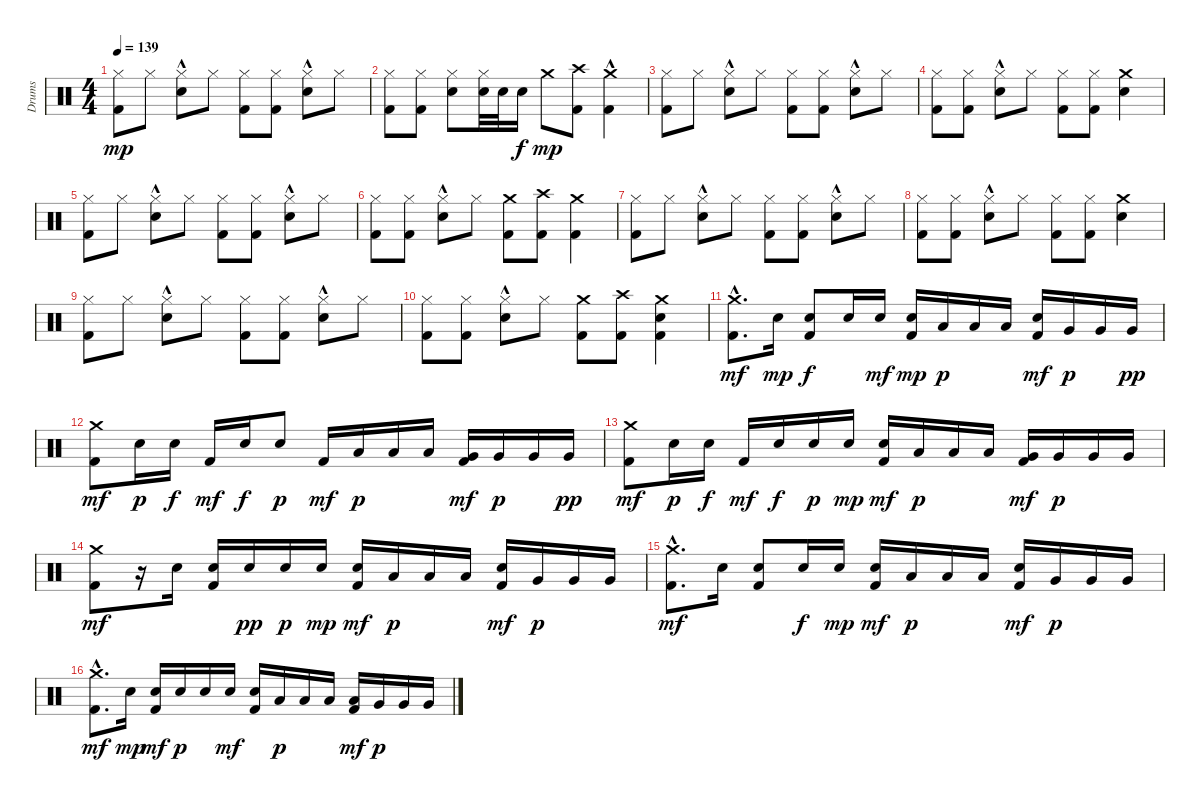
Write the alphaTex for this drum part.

\track ("Drums" "Drums") {instrument percussion}
\staff {score}
\articulation defaults
\ts (4 4)
\tempo 139
\clef neutral
\ks c
("Kick (hit) 2" "Hi-Hat (closed)").8{dy mp} "Hi-Hat (closed)".8 ("Hi-Hat (closed)" "Electric Snare (hit)"{hac}).8 "Hi-Hat (closed)".8 ("Kick (hit) 2" "Hi-Hat (closed)").8 ("Kick (hit) 2" "Hi-Hat (closed)").8 ("Hi-Hat (closed)" "Electric Snare (hit)"{hac}).8 "Hi-Hat (closed)".8 |
("Kick (hit) 2" "Hi-Hat (closed)").8 ("Kick (hit) 2" "Hi-Hat (closed)").8 ("Hi-Hat (closed)" "Electric Snare (hit)").8 ("Electric Snare (hit)" "Hi-Hat (closed)").32 "Electric Snare (hit)".32 "Electric Snare (hit)".16{dy f} "Crash medium (hit)".8{dy mp} ("Kick (hit) 2" "Crash high (hit)").8 ("Kick (hit) 2"{hac} "Crash medium (hit)").4 |
("Kick (hit) 2" "Hi-Hat (closed)").8 "Hi-Hat (closed)".8 ("Hi-Hat (closed)" "Electric Snare (hit)"{hac}).8 "Hi-Hat (closed)".8 ("Kick (hit) 2" "Hi-Hat (closed)").8 ("Kick (hit) 2" "Hi-Hat (closed)").8 ("Hi-Hat (closed)" "Electric Snare (hit)"{hac}).8 "Hi-Hat (closed)".8 |
("Kick (hit) 2" "Hi-Hat (closed)").8 ("Kick (hit) 2" "Hi-Hat (closed)").8 ("Hi-Hat (closed)" "Electric Snare (hit)"{hac}).8 "Hi-Hat (closed)".8 ("Kick (hit) 2" "Hi-Hat (closed)").8 ("Kick (hit) 2" "Hi-Hat (closed)").8 ("Crash medium (hit)" "Electric Snare (hit)").4 |
("Kick (hit) 2" "Hi-Hat (closed)").8 "Hi-Hat (closed)".8 ("Hi-Hat (closed)" "Electric Snare (hit)"{hac}).8 "Hi-Hat (closed)".8 ("Kick (hit) 2" "Hi-Hat (closed)").8 ("Kick (hit) 2" "Hi-Hat (closed)").8 ("Hi-Hat (closed)" "Electric Snare (hit)"{hac}).8 "Hi-Hat (closed)".8 |
("Kick (hit) 2" "Hi-Hat (closed)").8 ("Kick (hit) 2" "Hi-Hat (closed)").8 ("Hi-Hat (closed)" "Electric Snare (hit)"{hac}).8 "Hi-Hat (closed)".8 ("Kick (hit) 2" "Crash medium (hit)").8 ("Kick (hit) 2" "Crash high (hit)").8 ("Kick (hit) 2" "Crash medium (hit)").4 |
("Kick (hit) 2" "Hi-Hat (closed)").8 "Hi-Hat (closed)".8 ("Hi-Hat (closed)" "Electric Snare (hit)"{hac}).8 "Hi-Hat (closed)".8 ("Kick (hit) 2" "Hi-Hat (closed)").8 ("Kick (hit) 2" "Hi-Hat (closed)").8 ("Hi-Hat (closed)" "Electric Snare (hit)"{hac}).8 "Hi-Hat (closed)".8 |
("Kick (hit) 2" "Hi-Hat (closed)").8 ("Kick (hit) 2" "Hi-Hat (closed)").8 ("Hi-Hat (closed)" "Electric Snare (hit)"{hac}).8 "Hi-Hat (closed)".8 ("Kick (hit) 2" "Hi-Hat (closed)").8 ("Kick (hit) 2" "Hi-Hat (closed)").8 ("Crash medium (hit)" "Electric Snare (hit)").4 |
("Kick (hit) 2" "Hi-Hat (closed)").8 "Hi-Hat (closed)".8 ("Hi-Hat (closed)" "Electric Snare (hit)"{hac}).8 "Hi-Hat (closed)".8 ("Kick (hit) 2" "Hi-Hat (closed)").8 ("Kick (hit) 2" "Hi-Hat (closed)").8 ("Hi-Hat (closed)" "Electric Snare (hit)"{hac}).8 "Hi-Hat (closed)".8 |
("Kick (hit) 2" "Hi-Hat (closed)").8 ("Kick (hit) 2" "Hi-Hat (closed)").8 ("Hi-Hat (closed)" "Electric Snare (hit)"{hac}).8 "Hi-Hat (closed)".8 ("Kick (hit) 2" "Crash medium (hit)").8 ("Kick (hit) 2" "Crash high (hit)").8 ("Kick (hit) 2" "Crash medium (hit)" "Electric Snare (hit)").4 |
("Kick (hit) 2"{hac} "Crash medium (hit)"{hac}).8{d dy mf} "Electric Snare (hit)".16{dy mp} ("Electric Snare (hit)" "Kick (hit) 2").8{dy f} "Electric Snare (hit)".16 "Electric Snare (hit)".16{dy mf} ("Electric Snare (hit)" "Kick (hit) 2").16{dy mp} "Low Tom (hit)".16{dy p} "Low Tom (hit)".16 "Low Tom (hit)".16 ("Electric Snare (hit)" "Kick (hit) 2").16{dy mf} "Very Low Tom (hit)".16{dy p} "Very Low Tom (hit)".16 "Very Low Tom (hit)".16{dy pp} |
("Kick (hit) 2" "Crash medium (hit)").8{dy mf} "Electric Snare (hit)".16{dy p} "Electric Snare (hit)".16{dy f} "Kick (hit) 2".16{dy mf} "Electric Snare (hit)".16{dy f} "Electric Snare (hit)".8{dy p} "Kick (hit) 2".16{dy mf} "Low Tom (hit)".16{dy p} "Low Tom (hit)".16 "Low Tom (hit)".16 ("Very Low Tom (hit)" "Kick (hit) 2").16{dy mf} "Very Low Tom (hit)".16{dy p} "Very Low Tom (hit)".16 "Very Low Tom (hit)".16{dy pp} |
("Kick (hit) 2" "Crash medium (hit)").8{dy mf} "Electric Snare (hit)".16{dy p} "Electric Snare (hit)".16{dy f} "Kick (hit) 2".16{dy mf} "Electric Snare (hit)".16{dy f} "Electric Snare (hit)".16{dy p} "Electric Snare (hit)".16{dy mp} ("Electric Snare (hit)" "Kick (hit) 2").16{dy mf} "Low Tom (hit)".16{dy p} "Low Tom (hit)".16 "Low Tom (hit)".16 ("Very Low Tom (hit)" "Kick (hit) 2").16{dy mf} "Very Low Tom (hit)".16{dy p} "Very Low Tom (hit)".16 "Very Low Tom (hit)".16 |
("Kick (hit) 2" "Crash medium (hit)").8{dy mf} r.16 "Electric Snare (hit)".16 ("Electric Snare (hit)" "Kick (hit) 2").16 "Electric Snare (hit)".16{dy pp} "Electric Snare (hit)".16{dy p} "Electric Snare (hit)".16{dy mp} ("Electric Snare (hit)" "Kick (hit) 2").16{dy mf} "Low Tom (hit)".16{dy p} "Low Tom (hit)".16 "Low Tom (hit)".16 ("Electric Snare (hit)" "Kick (hit) 2").16{dy mf} "Very Low Tom (hit)".16{dy p} "Very Low Tom (hit)".16 "Very Low Tom (hit)".16 |
("Kick (hit) 2" "Crash medium (hit)"{hac}).8{d dy mf} "Electric Snare (hit)".16 ("Electric Snare (hit)" "Kick (hit) 2").8 "Electric Snare (hit)".16{dy f} "Electric Snare (hit)".16{dy mp} ("Electric Snare (hit)" "Kick (hit) 2").16{dy mf} "Low Tom (hit)".16{dy p} "Low Tom (hit)".16 "Low Tom (hit)".16 ("Electric Snare (hit)" "Kick (hit) 2").16{dy mf} "Very Low Tom (hit)".16{dy p} "Very Low Tom (hit)".16 "Very Low Tom (hit)".16 |
("Kick (hit) 2"{hac} "Crash medium (hit)"{hac}).8{d dy mf} "Electric Snare (hit)".16{dy mp} ("Electric Snare (hit)" "Kick (hit) 2").16{dy mf} "Electric Snare (hit)".16{dy p} "Electric Snare (hit)".16 "Electric Snare (hit)".16{dy mf} ("Electric Snare (hit)" "Kick (hit) 2").16 "Low Tom (hit)".16{dy p} "Low Tom (hit)".16 "Low Tom (hit)".16 ("Low Tom (hit)" "Kick (hit) 2").16{dy mf} "Very Low Tom (hit)".16{dy p} "Very Low Tom (hit)".16 "Very Low Tom (hit)".16
